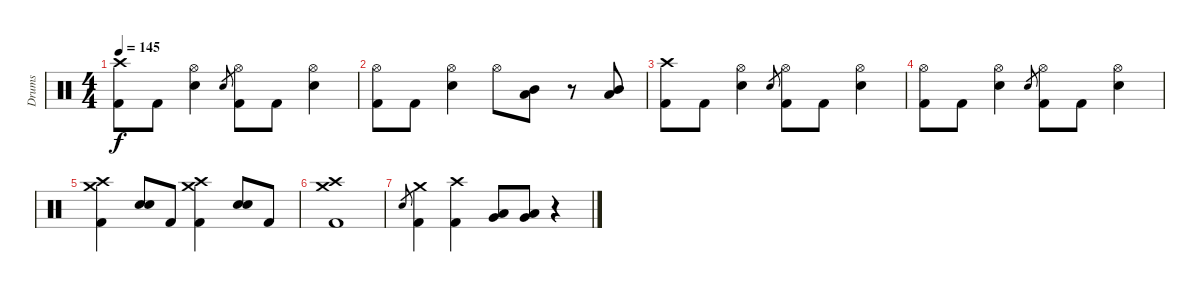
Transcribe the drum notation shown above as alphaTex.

\track ("Drums" "Drums") {instrument percussion}
\staff {score}
\articulation defaults
\ts (4 4)
\tempo 145
\clef neutral
\ks c
("Kick (hit) 2" "Crash high (hit)").8{dy f} "Kick (hit) 2".8 ("Electric Snare (hit)" "Hi-Hat (open)").4 "Electric Snare (hit)".8{gr} ("Kick (hit) 2" "Hi-Hat (open)").8 "Kick (hit) 2".8 ("Electric Snare (hit)" "Hi-Hat (open)").4 |
("Kick (hit) 2" "Hi-Hat (open)").8 "Kick (hit) 2".8 ("Electric Snare (hit)" "Hi-Hat (open)").4 "Hi-Hat (open)".8 ("Low Tom (hit)" "Mid Tom (hit)").8 r.8 ("Low Tom (hit)" "Mid Tom (hit)").8 |
("Kick (hit) 2" "Crash high (hit)").8 "Kick (hit) 2".8 ("Electric Snare (hit)" "Hi-Hat (open)").4 "Electric Snare (hit)".8{gr} ("Kick (hit) 2" "Hi-Hat (open)").8 "Kick (hit) 2".8 ("Electric Snare (hit)" "Hi-Hat (open)").4 |
("Kick (hit) 2" "Hi-Hat (open)").8 "Kick (hit) 2".8 ("Electric Snare (hit)" "Hi-Hat (open)").4 "Electric Snare (hit)".8{gr} ("Kick (hit) 2" "Hi-Hat (open)").8 "Kick (hit) 2".8 ("Electric Snare (hit)" "Hi-Hat (open)").4 |
("Kick (hit) 2" "Crash high (hit)" "Crash medium (hit)").4 ("Electric Snare (hit)" "Electric Snare (hit)").8 "Kick (hit) 2".8 ("Kick (hit) 2" "Crash high (hit)" "Crash medium (hit)").4 ("Electric Snare (hit)" "Electric Snare (hit)").8 "Kick (hit) 2".8 |
("Kick (hit) 2" "Crash high (hit)" "Crash medium (hit)").1 |
"Electric Snare (hit)".8{gr} ("Kick (hit) 2" "Crash medium (hit)").4 ("Kick (hit) 2" "Crash high (hit)").4 ("Very Low Tom (hit)" "Low Tom (hit)").8 ("Very Low Tom (hit)" "Low Tom (hit)").8 r.4
